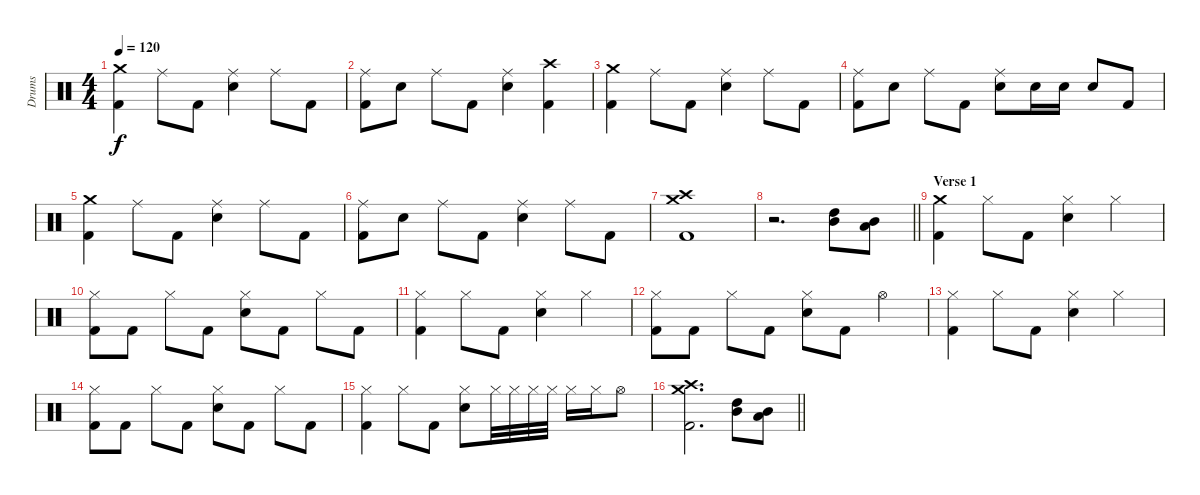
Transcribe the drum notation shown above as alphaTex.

\track ("Drums" "Drums") {instrument percussion}
\staff {score}
\articulation defaults
\ts (4 4)
\tempo 120
\clef neutral
\ks c
("Crash medium (hit)" "Kick (hit) 2").4{dy f} "Ride (middle)".8 "Kick (hit) 2".8 ("Ride (middle)" "Electric Snare (hit)").4 "Ride (middle)".8 "Kick (hit) 2".8 |
("Ride (middle)" "Kick (hit) 2").8 "Electric Snare (hit)".8 "Ride (middle)".8 "Kick (hit) 2".8 ("Ride (middle)" "Electric Snare (hit)").4 ("Crash high (hit)" "Kick (hit) 2").4 |
("Crash medium (hit)" "Kick (hit) 2").4 "Ride (middle)".8 "Kick (hit) 2".8 ("Ride (middle)" "Electric Snare (hit)").4 "Ride (middle)".8 "Kick (hit) 2".8 |
("Ride (middle)" "Kick (hit) 2").8 "Electric Snare (hit)".8 "Ride (middle)".8 "Kick (hit) 2".8 ("Ride (middle)" "Electric Snare (hit)").8 "Electric Snare (hit)".16 "Electric Snare (hit)".16 "Electric Snare (hit)".8 "Kick (hit) 2".8 |
("Crash medium (hit)" "Kick (hit) 2").4 "Ride (middle)".8 "Kick (hit) 2".8 ("Ride (middle)" "Electric Snare (hit)").4 "Ride (middle)".8 "Kick (hit) 2".8 |
("Ride (middle)" "Kick (hit) 2").8 "Electric Snare (hit)".8 "Ride (middle)".8 "Kick (hit) 2".8 ("Ride (middle)" "Electric Snare (hit)").4 "Ride (middle)".8 "Kick (hit) 2".8 |
("Crash medium (hit)" "Crash high (hit)" "Kick (hit) 2").1 |
\barLineRight lightlight
r.2{d} ("High Tom (hit)" "Mid Tom (hit)").8{bd 60} ("Mid Tom (hit)" "Low Tom (hit)").8{bd 60} |
\section ("" "Verse 1")
("Crash medium (hit)" "Kick (hit) 2").4 "Hi-Hat (closed)".8 "Kick (hit) 2".8 ("Hi-Hat (closed)" "Electric Snare (hit)").4 "Hi-Hat (closed)".4 |
("Hi-Hat (closed)" "Kick (hit) 2").8 "Kick (hit) 2".8 "Hi-Hat (closed)".8 "Kick (hit) 2".8 ("Hi-Hat (closed)" "Electric Snare (hit)").8 "Kick (hit) 2".8 "Hi-Hat (closed)".8 "Kick (hit) 2".8 |
("Hi-Hat (closed)" "Kick (hit) 2").4 "Hi-Hat (closed)".8 "Kick (hit) 2".8 ("Hi-Hat (closed)" "Electric Snare (hit)").4 "Hi-Hat (closed)".4 |
("Hi-Hat (closed)" "Kick (hit) 2").8 "Kick (hit) 2".8 "Hi-Hat (closed)".8 "Kick (hit) 2".8 ("Hi-Hat (closed)" "Electric Snare (hit)").8 "Kick (hit) 2".8 "Hi-Hat (open)".4 |
("Hi-Hat (closed)" "Kick (hit) 2").4 "Hi-Hat (closed)".8 "Kick (hit) 2".8 ("Hi-Hat (closed)" "Electric Snare (hit)").4 "Hi-Hat (closed)".4 |
("Hi-Hat (closed)" "Kick (hit) 2").8 "Kick (hit) 2".8 "Hi-Hat (closed)".8 "Kick (hit) 2".8 ("Hi-Hat (closed)" "Electric Snare (hit)").8 "Kick (hit) 2".8 "Hi-Hat (closed)".8 "Kick (hit) 2".8 |
("Hi-Hat (closed)" "Kick (hit) 2").4 "Hi-Hat (closed)".8 "Kick (hit) 2".8 ("Hi-Hat (closed)" "Electric Snare (hit)").8 "Hi-Hat (closed)".32 "Hi-Hat (closed)".32 "Hi-Hat (closed)".32 "Hi-Hat (closed)".32 "Hi-Hat (closed)".16 "Hi-Hat (closed)".16 "Hi-Hat (open)".8 |
\barLineRight lightlight
("Crash medium (hit)" "Crash high (hit)" "Kick (hit) 2").2{d} ("High Tom (hit)" "Mid Tom (hit)").8{bd 60} ("Mid Tom (hit)" "Low Tom (hit)").8{bd 60}
